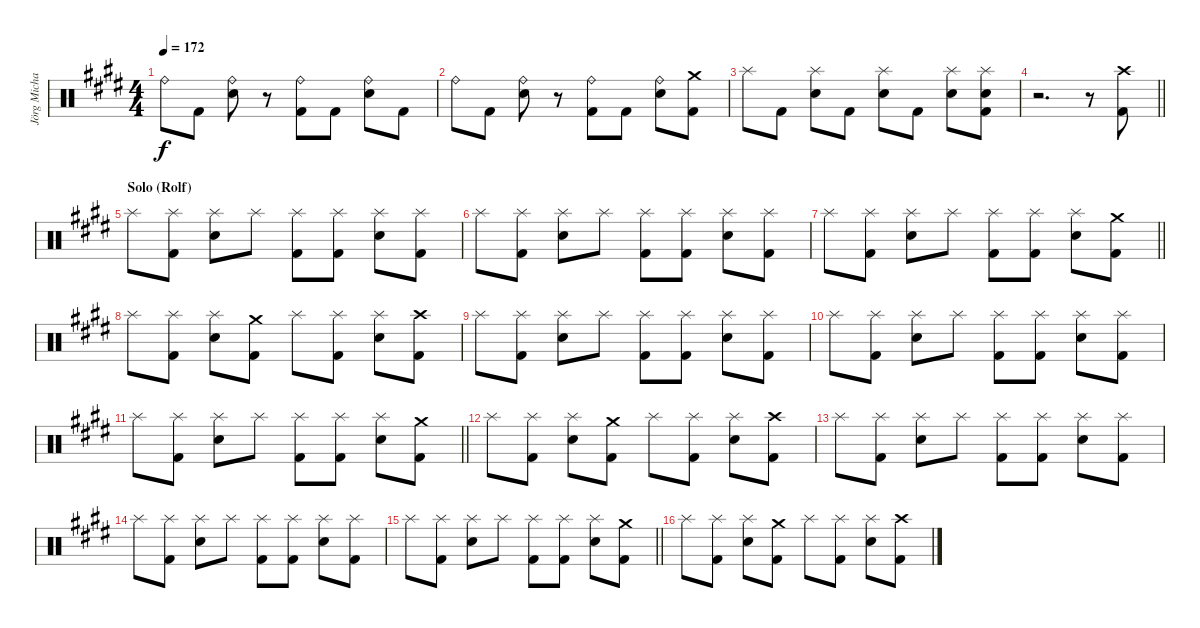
\track ("Jörg Michael" "Jörg Micha") {instrument percussion}
\staff {score}
\articulation defaults
\ts (4 4)
\tempo 172
\clef neutral
\ks c#minor "Ride (bell)".8{dy f} "Kick (hit) 2".8
("Ride (bell)" "Snare (hit) 2").8 r.8 ("Ride (bell)" "Kick (hit) 2").8 "Kick (hit) 2".8 ("Ride (bell)" "Snare (hit) 2").8 "Kick (hit) 2".8 |
"Ride (bell)".8 "Kick (hit) 2".8 ("Ride (bell)" "Snare (hit) 2").8 r.8 ("Ride (bell)" "Kick (hit) 2").8 "Kick (hit) 2".8 ("Ride (bell)" "Snare (hit) 2").8 ("Crash medium (hit)" "Kick (hit) 2").8 |
"Splash (hit)".8 "Kick (hit) 2".8 ("Splash (hit)" "Snare (hit) 2").8 "Kick (hit) 2".8 ("Splash (hit)" "Snare (hit) 2").8 "Kick (hit) 2".8 ("Splash (hit)" "Snare (hit) 2").8 ("Splash (hit)" "Snare (hit) 2" "Kick (hit) 2").8 |
\barLineRight lightlight
r.2{d} r.8 ("Crash high (hit)" "Kick (hit) 2").8 |
\section ("" "Solo (Rolf)")
"Splash (hit)".8 ("Splash (hit)" "Kick (hit) 2").8 ("Splash (hit)" "Snare (hit) 2").8 "Splash (hit)".8 ("Splash (hit)" "Kick (hit) 2").8 ("Splash (hit)" "Kick (hit) 2").8 ("Splash (hit)" "Snare (hit) 2").8 ("Splash (hit)" "Kick (hit) 2").8 |
"Splash (hit)".8 ("Splash (hit)" "Kick (hit) 2").8 ("Splash (hit)" "Snare (hit) 2").8 "Splash (hit)".8 ("Splash (hit)" "Kick (hit) 2").8 ("Splash (hit)" "Kick (hit) 2").8 ("Splash (hit)" "Snare (hit) 2").8 ("Splash (hit)" "Kick (hit) 2").8 |
\barLineRight lightlight "Splash (hit)".8
("Splash (hit)" "Kick (hit) 2").8 ("Splash (hit)" "Snare (hit) 2").8 "Splash (hit)".8 ("Splash (hit)" "Kick (hit) 2").8 ("Splash (hit)" "Kick (hit) 2").8 ("Splash (hit)" "Snare (hit) 2").8 ("Crash medium (hit)" "Kick (hit) 2").8 |
"Splash (hit)".8 ("Splash (hit)" "Kick (hit) 2").8 ("Splash (hit)" "Snare (hit) 2").8 ("Crash medium (hit)" "Kick (hit) 2").8 "Splash (hit)".8 ("Splash (hit)" "Kick (hit) 2").8 ("Splash (hit)" "Snare (hit) 2").8 ("Crash high (hit)" "Kick (hit) 2").8 |
"Splash (hit)".8 ("Splash (hit)" "Kick (hit) 2").8 ("Splash (hit)" "Snare (hit) 2").8 "Splash (hit)".8 ("Splash (hit)" "Kick (hit) 2").8 ("Splash (hit)" "Kick (hit) 2").8 ("Splash (hit)" "Snare (hit) 2").8 ("Splash (hit)" "Kick (hit) 2").8 |
"Splash (hit)".8 ("Splash (hit)" "Kick (hit) 2").8 ("Splash (hit)" "Snare (hit) 2").8 "Splash (hit)".8 ("Splash (hit)" "Kick (hit) 2").8 ("Splash (hit)" "Kick (hit) 2").8 ("Splash (hit)" "Snare (hit) 2").8 ("Splash (hit)" "Kick (hit) 2").8 |
\barLineRight lightlight "Splash (hit)".8
("Splash (hit)" "Kick (hit) 2").8 ("Splash (hit)" "Snare (hit) 2").8 "Splash (hit)".8 ("Splash (hit)" "Kick (hit) 2").8 ("Splash (hit)" "Kick (hit) 2").8 ("Splash (hit)" "Snare (hit) 2").8 ("Crash medium (hit)" "Kick (hit) 2").8 |
"Splash (hit)".8 ("Splash (hit)" "Kick (hit) 2").8 ("Splash (hit)" "Snare (hit) 2").8 ("Crash medium (hit)" "Kick (hit) 2").8 "Splash (hit)".8 ("Splash (hit)" "Kick (hit) 2").8 ("Splash (hit)" "Snare (hit) 2").8 ("Crash high (hit)" "Kick (hit) 2").8 |
"Splash (hit)".8 ("Splash (hit)" "Kick (hit) 2").8 ("Splash (hit)" "Snare (hit) 2").8 "Splash (hit)".8 ("Splash (hit)" "Kick (hit) 2").8 ("Splash (hit)" "Kick (hit) 2").8 ("Splash (hit)" "Snare (hit) 2").8 ("Splash (hit)" "Kick (hit) 2").8 |
"Splash (hit)".8 ("Splash (hit)" "Kick (hit) 2").8 ("Splash (hit)" "Snare (hit) 2").8 "Splash (hit)".8 ("Splash (hit)" "Kick (hit) 2").8 ("Splash (hit)" "Kick (hit) 2").8 ("Splash (hit)" "Snare (hit) 2").8 ("Splash (hit)" "Kick (hit) 2").8 |
\barLineRight lightlight "Splash (hit)".8
("Splash (hit)" "Kick (hit) 2").8 ("Splash (hit)" "Snare (hit) 2").8 "Splash (hit)".8 ("Splash (hit)" "Kick (hit) 2").8 ("Splash (hit)" "Kick (hit) 2").8 ("Splash (hit)" "Snare (hit) 2").8 ("Crash medium (hit)" "Kick (hit) 2").8 |
"Splash (hit)".8 ("Splash (hit)" "Kick (hit) 2").8 ("Splash (hit)" "Snare (hit) 2").8 ("Crash medium (hit)" "Kick (hit) 2").8 "Splash (hit)".8 ("Splash (hit)" "Kick (hit) 2").8 ("Splash (hit)" "Snare (hit) 2").8 ("Crash high (hit)" "Kick (hit) 2").8
